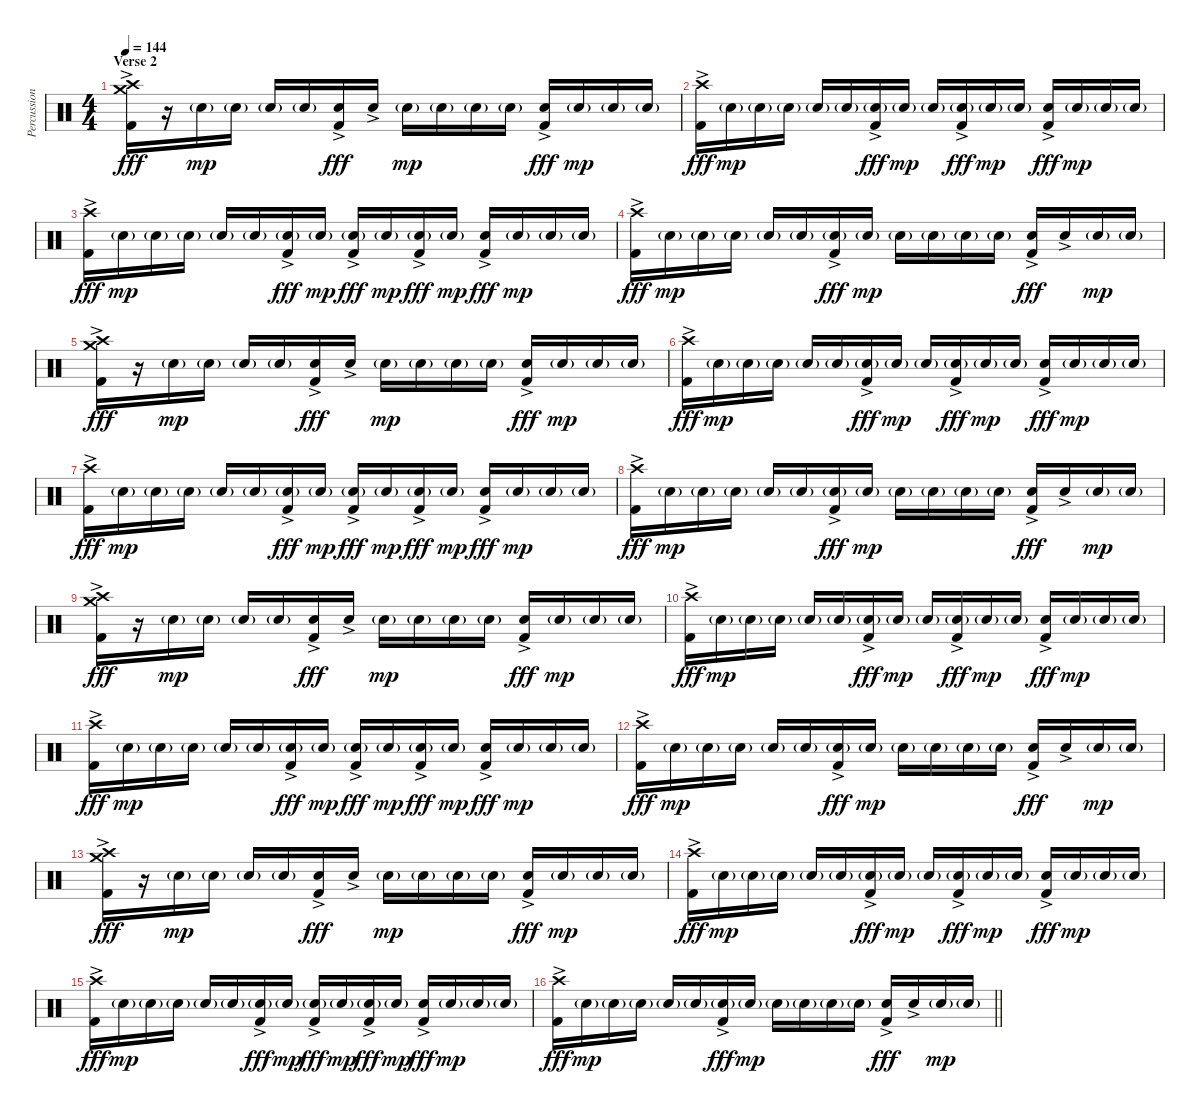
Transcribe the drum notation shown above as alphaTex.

\track ("Percussion" "Percussion") {instrument percussion}
\staff {score}
\articulation defaults
\ts (4 4)
\section ("" "Verse 2")
\tempo 144
\clef neutral
\ks c
("Crash high (hit)" "Crash medium (hit)" "Kick (hit) 2"{ac}).16{dy fff} r.16 "Electric Snare (hit)"{g}.16{dy mp} "Electric Snare (hit)"{g}.16 "Electric Snare (hit)"{g}.16 "Electric Snare (hit)"{g}.16 ("Electric Snare (hit)"{ac} "Kick (hit) 2"{ac}).16{dy fff} "Electric Snare (hit)"{ac}.16 "Electric Snare (hit)"{g}.16{dy mp} "Electric Snare (hit)"{g}.16 "Electric Snare (hit)"{g}.16 "Electric Snare (hit)"{g}.16 ("Electric Snare (hit)"{ac} "Kick (hit) 2"{ac}).16{dy fff} "Electric Snare (hit)"{g}.16{dy mp} "Electric Snare (hit)"{g}.16 "Electric Snare (hit)"{g}.16 |
("Crash high (hit)" "Kick (hit) 2"{ac}).16{dy fff} "Electric Snare (hit)"{g}.16{dy mp} "Electric Snare (hit)"{g}.16 "Electric Snare (hit)"{g}.16 "Electric Snare (hit)"{g}.16 "Electric Snare (hit)"{g}.16 ("Electric Snare (hit)"{g} "Kick (hit) 2"{ac}).16{dy fff} "Electric Snare (hit)"{g}.16{dy mp} "Electric Snare (hit)"{g}.16 ("Electric Snare (hit)"{g} "Kick (hit) 2"{ac}).16{dy fff} "Electric Snare (hit)"{g}.16{dy mp} "Electric Snare (hit)"{g}.16 ("Electric Snare (hit)"{ac} "Kick (hit) 2"{ac}).16{dy fff} "Electric Snare (hit)"{g}.16{dy mp} "Electric Snare (hit)"{g}.16 "Electric Snare (hit)"{g}.16 |
("Crash high (hit)" "Kick (hit) 2"{ac}).16{dy fff} "Electric Snare (hit)"{g}.16{dy mp} "Electric Snare (hit)"{g}.16 "Electric Snare (hit)"{g}.16 "Electric Snare (hit)"{g}.16 "Electric Snare (hit)"{g}.16 ("Electric Snare (hit)"{g} "Kick (hit) 2"{ac}).16{dy fff} "Electric Snare (hit)"{g}.16{dy mp} ("Electric Snare (hit)"{g} "Kick (hit) 2"{ac}).16{dy fff} "Electric Snare (hit)"{g}.16{dy mp} ("Electric Snare (hit)"{g} "Kick (hit) 2"{ac}).16{dy fff} "Electric Snare (hit)"{g}.16{dy mp} ("Electric Snare (hit)"{ac} "Kick (hit) 2"{ac}).16{dy fff} "Electric Snare (hit)"{g}.16{dy mp} "Electric Snare (hit)"{g}.16 "Electric Snare (hit)"{g}.16 |
("Crash high (hit)" "Kick (hit) 2"{ac}).16{dy fff} "Electric Snare (hit)"{g}.16{dy mp} "Electric Snare (hit)"{g}.16 "Electric Snare (hit)"{g}.16 "Electric Snare (hit)"{g}.16 "Electric Snare (hit)"{g}.16 ("Electric Snare (hit)"{g} "Kick (hit) 2"{ac}).16{dy fff} "Electric Snare (hit)"{g}.16{dy mp} "Electric Snare (hit)"{g}.16 "Electric Snare (hit)"{g}.16 "Electric Snare (hit)"{g}.16 "Electric Snare (hit)"{g}.16 ("Electric Snare (hit)"{ac} "Kick (hit) 2"{ac}).16{dy fff} "Electric Snare (hit)"{ac}.16 "Electric Snare (hit)"{g}.16{dy mp} "Electric Snare (hit)"{g}.16 |
("Crash high (hit)" "Crash medium (hit)" "Kick (hit) 2"{ac}).16{dy fff} r.16 "Electric Snare (hit)"{g}.16{dy mp} "Electric Snare (hit)"{g}.16 "Electric Snare (hit)"{g}.16 "Electric Snare (hit)"{g}.16 ("Electric Snare (hit)"{ac} "Kick (hit) 2"{ac}).16{dy fff} "Electric Snare (hit)"{ac}.16 "Electric Snare (hit)"{g}.16{dy mp} "Electric Snare (hit)"{g}.16 "Electric Snare (hit)"{g}.16 "Electric Snare (hit)"{g}.16 ("Electric Snare (hit)"{ac} "Kick (hit) 2"{ac}).16{dy fff} "Electric Snare (hit)"{g}.16{dy mp} "Electric Snare (hit)"{g}.16 "Electric Snare (hit)"{g}.16 |
("Crash high (hit)" "Kick (hit) 2"{ac}).16{dy fff} "Electric Snare (hit)"{g}.16{dy mp} "Electric Snare (hit)"{g}.16 "Electric Snare (hit)"{g}.16 "Electric Snare (hit)"{g}.16 "Electric Snare (hit)"{g}.16 ("Electric Snare (hit)"{g} "Kick (hit) 2"{ac}).16{dy fff} "Electric Snare (hit)"{g}.16{dy mp} "Electric Snare (hit)"{g}.16 ("Electric Snare (hit)"{g} "Kick (hit) 2"{ac}).16{dy fff} "Electric Snare (hit)"{g}.16{dy mp} "Electric Snare (hit)"{g}.16 ("Electric Snare (hit)"{ac} "Kick (hit) 2"{ac}).16{dy fff} "Electric Snare (hit)"{g}.16{dy mp} "Electric Snare (hit)"{g}.16 "Electric Snare (hit)"{g}.16 |
("Crash high (hit)" "Kick (hit) 2"{ac}).16{dy fff} "Electric Snare (hit)"{g}.16{dy mp} "Electric Snare (hit)"{g}.16 "Electric Snare (hit)"{g}.16 "Electric Snare (hit)"{g}.16 "Electric Snare (hit)"{g}.16 ("Electric Snare (hit)"{g} "Kick (hit) 2"{ac}).16{dy fff} "Electric Snare (hit)"{g}.16{dy mp} ("Electric Snare (hit)"{g} "Kick (hit) 2"{ac}).16{dy fff} "Electric Snare (hit)"{g}.16{dy mp} ("Electric Snare (hit)"{g} "Kick (hit) 2"{ac}).16{dy fff} "Electric Snare (hit)"{g}.16{dy mp} ("Electric Snare (hit)"{ac} "Kick (hit) 2"{ac}).16{dy fff} "Electric Snare (hit)"{g}.16{dy mp} "Electric Snare (hit)"{g}.16 "Electric Snare (hit)"{g}.16 |
("Crash high (hit)" "Kick (hit) 2"{ac}).16{dy fff} "Electric Snare (hit)"{g}.16{dy mp} "Electric Snare (hit)"{g}.16 "Electric Snare (hit)"{g}.16 "Electric Snare (hit)"{g}.16 "Electric Snare (hit)"{g}.16 ("Electric Snare (hit)"{g} "Kick (hit) 2"{ac}).16{dy fff} "Electric Snare (hit)"{g}.16{dy mp} "Electric Snare (hit)"{g}.16 "Electric Snare (hit)"{g}.16 "Electric Snare (hit)"{g}.16 "Electric Snare (hit)"{g}.16 ("Electric Snare (hit)"{ac} "Kick (hit) 2"{ac}).16{dy fff} "Electric Snare (hit)"{ac}.16 "Electric Snare (hit)"{g}.16{dy mp} "Electric Snare (hit)"{g}.16 |
("Crash high (hit)" "Crash medium (hit)" "Kick (hit) 2"{ac}).16{dy fff} r.16 "Electric Snare (hit)"{g}.16{dy mp} "Electric Snare (hit)"{g}.16 "Electric Snare (hit)"{g}.16 "Electric Snare (hit)"{g}.16 ("Electric Snare (hit)"{ac} "Kick (hit) 2"{ac}).16{dy fff} "Electric Snare (hit)"{ac}.16 "Electric Snare (hit)"{g}.16{dy mp} "Electric Snare (hit)"{g}.16 "Electric Snare (hit)"{g}.16 "Electric Snare (hit)"{g}.16 ("Electric Snare (hit)"{ac} "Kick (hit) 2"{ac}).16{dy fff} "Electric Snare (hit)"{g}.16{dy mp} "Electric Snare (hit)"{g}.16 "Electric Snare (hit)"{g}.16 |
("Crash high (hit)" "Kick (hit) 2"{ac}).16{dy fff} "Electric Snare (hit)"{g}.16{dy mp} "Electric Snare (hit)"{g}.16 "Electric Snare (hit)"{g}.16 "Electric Snare (hit)"{g}.16 "Electric Snare (hit)"{g}.16 ("Electric Snare (hit)"{g} "Kick (hit) 2"{ac}).16{dy fff} "Electric Snare (hit)"{g}.16{dy mp} "Electric Snare (hit)"{g}.16 ("Electric Snare (hit)"{g} "Kick (hit) 2"{ac}).16{dy fff} "Electric Snare (hit)"{g}.16{dy mp} "Electric Snare (hit)"{g}.16 ("Electric Snare (hit)"{ac} "Kick (hit) 2"{ac}).16{dy fff} "Electric Snare (hit)"{g}.16{dy mp} "Electric Snare (hit)"{g}.16 "Electric Snare (hit)"{g}.16 |
("Crash high (hit)" "Kick (hit) 2"{ac}).16{dy fff} "Electric Snare (hit)"{g}.16{dy mp} "Electric Snare (hit)"{g}.16 "Electric Snare (hit)"{g}.16 "Electric Snare (hit)"{g}.16 "Electric Snare (hit)"{g}.16 ("Electric Snare (hit)"{g} "Kick (hit) 2"{ac}).16{dy fff} "Electric Snare (hit)"{g}.16{dy mp} ("Electric Snare (hit)"{g} "Kick (hit) 2"{ac}).16{dy fff} "Electric Snare (hit)"{g}.16{dy mp} ("Electric Snare (hit)"{g} "Kick (hit) 2"{ac}).16{dy fff} "Electric Snare (hit)"{g}.16{dy mp} ("Electric Snare (hit)"{ac} "Kick (hit) 2"{ac}).16{dy fff} "Electric Snare (hit)"{g}.16{dy mp} "Electric Snare (hit)"{g}.16 "Electric Snare (hit)"{g}.16 |
("Crash high (hit)" "Kick (hit) 2"{ac}).16{dy fff} "Electric Snare (hit)"{g}.16{dy mp} "Electric Snare (hit)"{g}.16 "Electric Snare (hit)"{g}.16 "Electric Snare (hit)"{g}.16 "Electric Snare (hit)"{g}.16 ("Electric Snare (hit)"{g} "Kick (hit) 2"{ac}).16{dy fff} "Electric Snare (hit)"{g}.16{dy mp} "Electric Snare (hit)"{g}.16 "Electric Snare (hit)"{g}.16 "Electric Snare (hit)"{g}.16 "Electric Snare (hit)"{g}.16 ("Electric Snare (hit)"{ac} "Kick (hit) 2"{ac}).16{dy fff} "Electric Snare (hit)"{ac}.16 "Electric Snare (hit)"{g}.16{dy mp} "Electric Snare (hit)"{g}.16 |
("Crash high (hit)" "Crash medium (hit)" "Kick (hit) 2"{ac}).16{dy fff} r.16 "Electric Snare (hit)"{g}.16{dy mp} "Electric Snare (hit)"{g}.16 "Electric Snare (hit)"{g}.16 "Electric Snare (hit)"{g}.16 ("Electric Snare (hit)"{ac} "Kick (hit) 2"{ac}).16{dy fff} "Electric Snare (hit)"{ac}.16 "Electric Snare (hit)"{g}.16{dy mp} "Electric Snare (hit)"{g}.16 "Electric Snare (hit)"{g}.16 "Electric Snare (hit)"{g}.16 ("Electric Snare (hit)"{ac} "Kick (hit) 2"{ac}).16{dy fff} "Electric Snare (hit)"{g}.16{dy mp} "Electric Snare (hit)"{g}.16 "Electric Snare (hit)"{g}.16 |
("Crash high (hit)" "Kick (hit) 2"{ac}).16{dy fff} "Electric Snare (hit)"{g}.16{dy mp} "Electric Snare (hit)"{g}.16 "Electric Snare (hit)"{g}.16 "Electric Snare (hit)"{g}.16 "Electric Snare (hit)"{g}.16 ("Electric Snare (hit)"{g} "Kick (hit) 2"{ac}).16{dy fff} "Electric Snare (hit)"{g}.16{dy mp} "Electric Snare (hit)"{g}.16 ("Electric Snare (hit)"{g} "Kick (hit) 2"{ac}).16{dy fff} "Electric Snare (hit)"{g}.16{dy mp} "Electric Snare (hit)"{g}.16 ("Electric Snare (hit)"{ac} "Kick (hit) 2"{ac}).16{dy fff} "Electric Snare (hit)"{g}.16{dy mp} "Electric Snare (hit)"{g}.16 "Electric Snare (hit)"{g}.16 |
("Crash high (hit)" "Kick (hit) 2"{ac}).16{dy fff} "Electric Snare (hit)"{g}.16{dy mp} "Electric Snare (hit)"{g}.16 "Electric Snare (hit)"{g}.16 "Electric Snare (hit)"{g}.16 "Electric Snare (hit)"{g}.16 ("Electric Snare (hit)"{g} "Kick (hit) 2"{ac}).16{dy fff} "Electric Snare (hit)"{g}.16{dy mp} ("Electric Snare (hit)"{g} "Kick (hit) 2"{ac}).16{dy fff} "Electric Snare (hit)"{g}.16{dy mp} ("Electric Snare (hit)"{g} "Kick (hit) 2"{ac}).16{dy fff} "Electric Snare (hit)"{g}.16{dy mp} ("Electric Snare (hit)"{ac} "Kick (hit) 2"{ac}).16{dy fff} "Electric Snare (hit)"{g}.16{dy mp} "Electric Snare (hit)"{g}.16 "Electric Snare (hit)"{g}.16 |
\barLineRight lightlight
("Crash high (hit)" "Kick (hit) 2"{ac}).16{dy fff} "Electric Snare (hit)"{g}.16{dy mp} "Electric Snare (hit)"{g}.16 "Electric Snare (hit)"{g}.16 "Electric Snare (hit)"{g}.16 "Electric Snare (hit)"{g}.16 ("Electric Snare (hit)"{g} "Kick (hit) 2"{ac}).16{dy fff} "Electric Snare (hit)"{g}.16{dy mp} "Electric Snare (hit)"{g}.16 "Electric Snare (hit)"{g}.16 "Electric Snare (hit)"{g}.16 "Electric Snare (hit)"{g}.16 ("Electric Snare (hit)"{ac} "Kick (hit) 2"{ac}).16{dy fff} "Electric Snare (hit)"{ac}.16 "Electric Snare (hit)"{g}.16{dy mp} "Electric Snare (hit)"{g}.16
